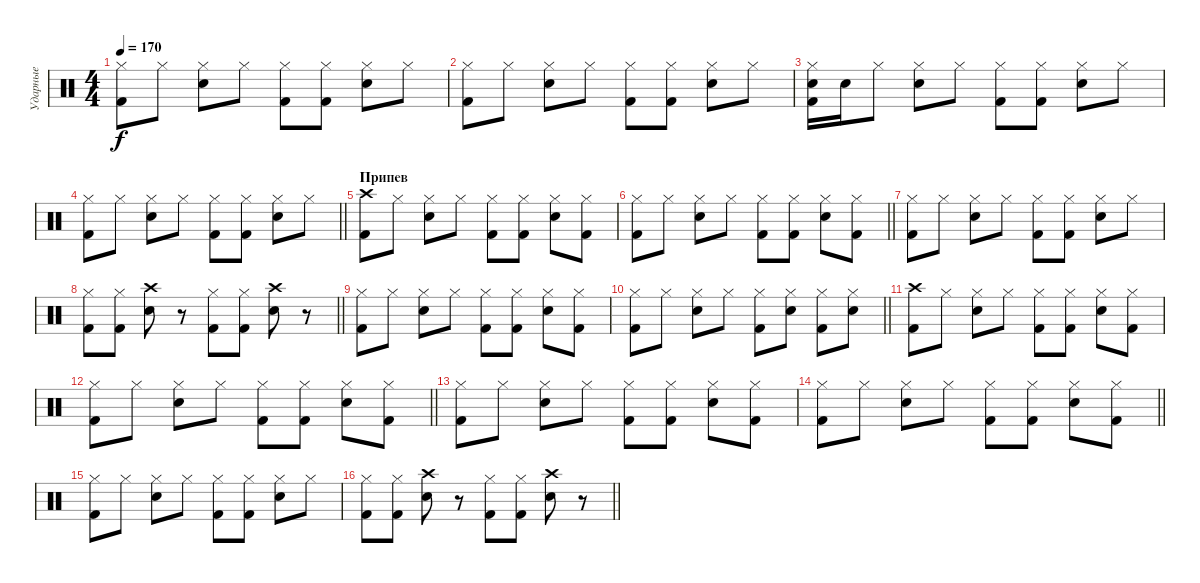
\track ("Ударные" "Ударные") {instrument percussion}
\staff {score}
\articulation defaults
\ts (4 4)
\tempo 170
\clef neutral
\ks c
("Hi-Hat (closed)" "Kick (hit) 2").8{dy f} "Hi-Hat (closed)".8 ("Hi-Hat (closed)" "Snare (hit) 2").8 "Hi-Hat (closed)".8 ("Hi-Hat (closed)" "Kick (hit) 2").8 ("Hi-Hat (closed)" "Kick (hit) 2").8 ("Hi-Hat (closed)" "Snare (hit) 2").8 "Hi-Hat (closed)".8 |
("Hi-Hat (closed)" "Kick (hit) 2").8 "Hi-Hat (closed)".8 ("Hi-Hat (closed)" "Snare (hit) 2").8 "Hi-Hat (closed)".8 ("Hi-Hat (closed)" "Kick (hit) 2").8 ("Hi-Hat (closed)" "Kick (hit) 2").8 ("Hi-Hat (closed)" "Snare (hit) 2").8 "Hi-Hat (closed)".8 |
("Hi-Hat (closed)" "Snare (hit) 2" "Kick (hit) 2").16 "Snare (hit) 2".16 "Hi-Hat (closed)".8 ("Hi-Hat (closed)" "Snare (hit) 2").8 "Hi-Hat (closed)".8 ("Hi-Hat (closed)" "Kick (hit) 2").8 ("Hi-Hat (closed)" "Kick (hit) 2").8 ("Hi-Hat (closed)" "Snare (hit) 2").8 "Hi-Hat (closed)".8 |
\barLineRight lightlight
("Hi-Hat (closed)" "Kick (hit) 2").8 "Hi-Hat (closed)".8 ("Hi-Hat (closed)" "Snare (hit) 2").8 "Hi-Hat (closed)".8 ("Hi-Hat (closed)" "Kick (hit) 2").8 ("Hi-Hat (closed)" "Kick (hit) 2").8 ("Hi-Hat (closed)" "Snare (hit) 2").8 "Hi-Hat (closed)".8 |
\section ("" "Припев")
("Crash high (hit)" "Kick (hit) 2").8 "Hi-Hat (closed)".8 ("Hi-Hat (closed)" "Snare (hit) 2").8 "Hi-Hat (closed)".8 ("Hi-Hat (closed)" "Kick (hit) 2").8 ("Hi-Hat (closed)" "Kick (hit) 2").8 ("Hi-Hat (closed)" "Snare (hit) 2").8 ("Hi-Hat (closed)" "Kick (hit) 2").8 |
\barLineRight lightlight
("Hi-Hat (closed)" "Kick (hit) 2").8 "Hi-Hat (closed)".8 ("Hi-Hat (closed)" "Snare (hit) 2").8 "Hi-Hat (closed)".8 ("Hi-Hat (closed)" "Kick (hit) 2").8 ("Hi-Hat (closed)" "Kick (hit) 2").8 ("Hi-Hat (closed)" "Snare (hit) 2").8 ("Hi-Hat (closed)" "Kick (hit) 2").8 |
\section ("" "")
("Hi-Hat (closed)" "Kick (hit) 2").8 "Hi-Hat (closed)".8 ("Hi-Hat (closed)" "Snare (hit) 2").8 "Hi-Hat (closed)".8 ("Hi-Hat (closed)" "Kick (hit) 2").8 ("Hi-Hat (closed)" "Kick (hit) 2").8 ("Hi-Hat (closed)" "Snare (hit) 2").8 "Hi-Hat (closed)".8 |
\barLineRight lightlight
("Hi-Hat (closed)" "Kick (hit) 2").8 ("Hi-Hat (closed)" "Kick (hit) 2").8 ("Crash high (hit)" "Snare (hit) 2").8 r.8 ("Hi-Hat (closed)" "Kick (hit) 2").8 ("Hi-Hat (closed)" "Kick (hit) 2").8 ("Crash high (hit)" "Snare (hit) 2").8 r.8 |
("Hi-Hat (closed)" "Kick (hit) 2").8 "Hi-Hat (closed)".8 ("Hi-Hat (closed)" "Snare (hit) 2").8 "Hi-Hat (closed)".8 ("Hi-Hat (closed)" "Kick (hit) 2").8 ("Hi-Hat (closed)" "Kick (hit) 2").8 ("Hi-Hat (closed)" "Snare (hit) 2").8 ("Hi-Hat (closed)" "Kick (hit) 2").8 |
\barLineRight lightlight
("Hi-Hat (closed)" "Kick (hit) 2").8 "Hi-Hat (closed)".8 ("Hi-Hat (closed)" "Snare (hit) 2").8 "Hi-Hat (closed)".8 ("Hi-Hat (closed)" "Kick (hit) 2").8 ("Hi-Hat (closed)" "Snare (hit) 2").8 ("Hi-Hat (closed)" "Kick (hit) 2").8 ("Hi-Hat (closed)" "Snare (hit) 2").8 |
("Crash high (hit)" "Kick (hit) 2").8 "Hi-Hat (closed)".8 ("Hi-Hat (closed)" "Snare (hit) 2").8 "Hi-Hat (closed)".8 ("Hi-Hat (closed)" "Kick (hit) 2").8 ("Hi-Hat (closed)" "Kick (hit) 2").8 ("Hi-Hat (closed)" "Snare (hit) 2").8 ("Hi-Hat (closed)" "Kick (hit) 2").8 |
\barLineRight lightlight
("Hi-Hat (closed)" "Kick (hit) 2").8 "Hi-Hat (closed)".8 ("Hi-Hat (closed)" "Snare (hit) 2").8 "Hi-Hat (closed)".8 ("Hi-Hat (closed)" "Kick (hit) 2").8 ("Hi-Hat (closed)" "Kick (hit) 2").8 ("Hi-Hat (closed)" "Snare (hit) 2").8 ("Hi-Hat (closed)" "Kick (hit) 2").8 |
("Hi-Hat (closed)" "Kick (hit) 2").8 "Hi-Hat (closed)".8 ("Hi-Hat (closed)" "Snare (hit) 2").8 "Hi-Hat (closed)".8 ("Hi-Hat (closed)" "Kick (hit) 2").8 ("Hi-Hat (closed)" "Kick (hit) 2").8 ("Hi-Hat (closed)" "Snare (hit) 2").8 ("Hi-Hat (closed)" "Kick (hit) 2").8 |
\barLineRight lightlight
("Hi-Hat (closed)" "Kick (hit) 2").8 "Hi-Hat (closed)".8 ("Hi-Hat (closed)" "Snare (hit) 2").8 "Hi-Hat (closed)".8 ("Hi-Hat (closed)" "Kick (hit) 2").8 ("Hi-Hat (closed)" "Kick (hit) 2").8 ("Hi-Hat (closed)" "Snare (hit) 2").8 ("Hi-Hat (closed)" "Kick (hit) 2").8 |
("Hi-Hat (closed)" "Kick (hit) 2").8 "Hi-Hat (closed)".8 ("Hi-Hat (closed)" "Snare (hit) 2").8 "Hi-Hat (closed)".8 ("Hi-Hat (closed)" "Kick (hit) 2").8 ("Hi-Hat (closed)" "Kick (hit) 2").8 ("Hi-Hat (closed)" "Snare (hit) 2").8 "Hi-Hat (closed)".8 |
\barLineRight lightlight
("Hi-Hat (closed)" "Kick (hit) 2").8 ("Hi-Hat (closed)" "Kick (hit) 2").8 ("Crash high (hit)" "Snare (hit) 2").8 r.8 ("Hi-Hat (closed)" "Kick (hit) 2").8 ("Hi-Hat (closed)" "Kick (hit) 2").8 ("Crash high (hit)" "Snare (hit) 2").8 r.8
